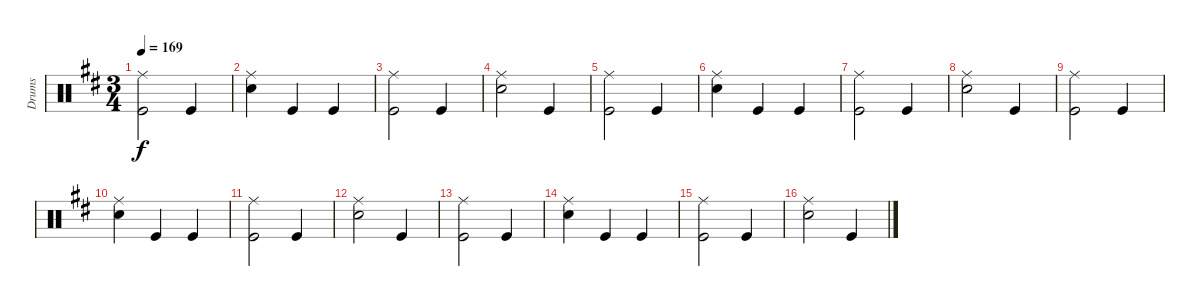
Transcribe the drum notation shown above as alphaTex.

\track ("Drums" "Drums") {instrument percussion}
\staff {score}
\articulation defaults
\ts (3 4)
\tempo 169
\clef neutral
\ks d
("Ride (middle)" "Kick (hit)").2{dy f} "Kick (hit)".4 |
("Ride (middle)" "Snare (hit) 2").4 "Kick (hit)".4 "Kick (hit)".4 |
("Ride (middle)" "Kick (hit)").2 "Kick (hit)".4 |
("Ride (middle)" "Snare (hit) 2").2 "Kick (hit)".4 |
("Ride (middle)" "Kick (hit)").2 "Kick (hit)".4 |
("Ride (middle)" "Snare (hit) 2").4 "Kick (hit)".4 "Kick (hit)".4 |
("Ride (middle)" "Kick (hit)").2 "Kick (hit)".4 |
("Ride (middle)" "Snare (hit) 2").2 "Kick (hit)".4 |
("Ride (middle)" "Kick (hit)").2 "Kick (hit)".4 |
("Ride (middle)" "Snare (hit) 2").4 "Kick (hit)".4 "Kick (hit)".4 |
("Ride (middle)" "Kick (hit)").2 "Kick (hit)".4 |
("Ride (middle)" "Snare (hit) 2").2 "Kick (hit)".4 |
("Ride (middle)" "Kick (hit)").2 "Kick (hit)".4 |
("Ride (middle)" "Snare (hit) 2").4 "Kick (hit)".4 "Kick (hit)".4 |
("Ride (middle)" "Kick (hit)").2 "Kick (hit)".4 |
("Ride (middle)" "Snare (hit) 2").2 "Kick (hit)".4
